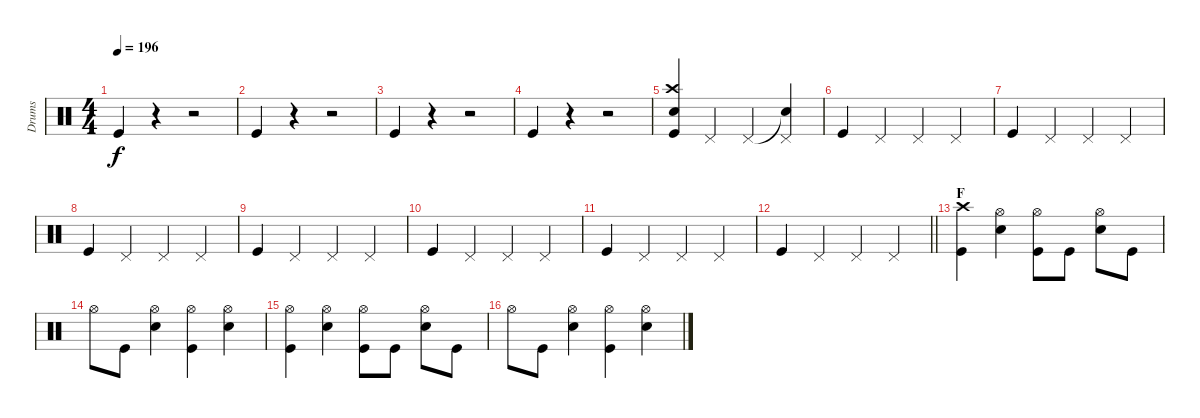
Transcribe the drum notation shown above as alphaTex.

\track ("Drums" "Drums") {instrument percussion}
\staff {score}
\articulation defaults
\ts (4 4)
\tempo 196
\clef neutral
\ks c "Kick (hit)".4{dy f}
r.4 r.2 |
"Kick (hit)".4 r.4 r.2 |
"Kick (hit)".4 r.4 r.2 |
"Kick (hit)".4 r.4 r.2 |
("Crash high (hit)" "Electric Snare (hit)" "Kick (hit)").4 "Pedal Hi-Hat (hit)".4 "Pedal Hi-Hat (hit)".4 ("Snare (hit)"{t} "Pedal Hi-Hat (hit)").4 |
"Kick (hit)".4 "Pedal Hi-Hat (hit)".4 "Pedal Hi-Hat (hit)".4 "Pedal Hi-Hat (hit)".4 |
"Kick (hit)".4 "Pedal Hi-Hat (hit)".4 "Pedal Hi-Hat (hit)".4 "Pedal Hi-Hat (hit)".4 |
"Kick (hit)".4 "Pedal Hi-Hat (hit)".4 "Pedal Hi-Hat (hit)".4 "Pedal Hi-Hat (hit)".4 |
"Kick (hit)".4 "Pedal Hi-Hat (hit)".4 "Pedal Hi-Hat (hit)".4 "Pedal Hi-Hat (hit)".4 |
"Kick (hit)".4 "Pedal Hi-Hat (hit)".4 "Pedal Hi-Hat (hit)".4 "Pedal Hi-Hat (hit)".4 |
"Kick (hit)".4 "Pedal Hi-Hat (hit)".4 "Pedal Hi-Hat (hit)".4 "Pedal Hi-Hat (hit)".4 |
\barLineRight lightlight "Kick (hit)".4 "Pedal Hi-Hat (hit)".4 "Pedal Hi-Hat (hit)".4 "Pedal Hi-Hat (hit)".4
|
\section ("" "F")
("Crash high (hit)" "Kick (hit)").4 ("Hi-Hat (open)" "Electric Snare (hit)").4 ("Hi-Hat (open)" "Kick (hit)").8 "Kick (hit)".8 ("Hi-Hat (open)" "Electric Snare (hit)").8 "Kick (hit)".8 |
"Hi-Hat (open)".8 "Kick (hit)".8 ("Hi-Hat (open)" "Electric Snare (hit)").4 ("Hi-Hat (open)" "Kick (hit)").4 ("Hi-Hat (open)" "Electric Snare (hit)").4 |
("Hi-Hat (open)" "Kick (hit)").4 ("Hi-Hat (open)" "Electric Snare (hit)").4 ("Hi-Hat (open)" "Kick (hit)").8 "Kick (hit)".8 ("Hi-Hat (open)" "Electric Snare (hit)").8 "Kick (hit)".8 |
"Hi-Hat (open)".8 "Kick (hit)".8 ("Hi-Hat (open)" "Electric Snare (hit)").4 ("Hi-Hat (open)" "Kick (hit)").4 ("Hi-Hat (open)" "Electric Snare (hit)").4
